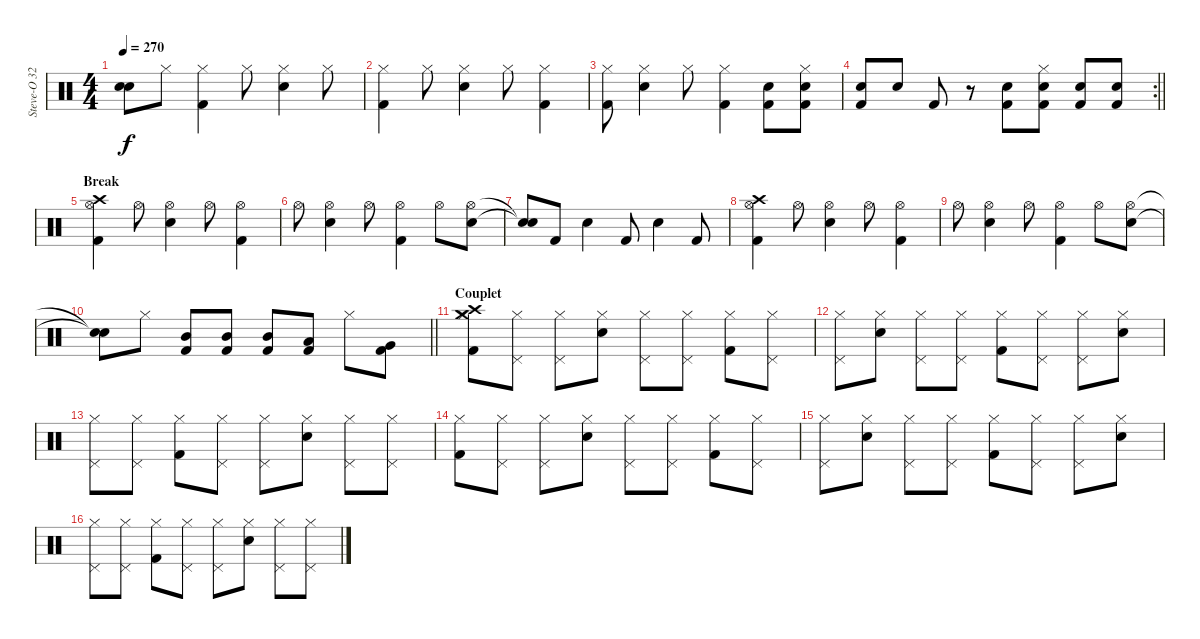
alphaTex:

\track ("Steve-O 32" "Steve-O 32") {instrument percussion}
\staff {score}
\articulation defaults
\ts (4 4)
\tempo 270
\clef neutral
\ks c
("Snare (hit)"{t} "Snare (hit)"{t}).8{dy f} "Hi-Hat (closed)".8 ("Kick (hit) 2" "Hi-Hat (closed)").4 "Hi-Hat (closed)".8 ("Electric Snare (hit)" "Hi-Hat (closed)").4 "Hi-Hat (closed)".8 |
("Hi-Hat (closed)" "Kick (hit) 2").4 "Hi-Hat (closed)".8 ("Electric Snare (hit)" "Hi-Hat (closed)").4 "Hi-Hat (closed)".8 ("Kick (hit) 2" "Hi-Hat (closed)").4 |
("Hi-Hat (closed)" "Kick (hit) 2").8 ("Electric Snare (hit)" "Hi-Hat (closed)").4 "Hi-Hat (closed)".8 ("Kick (hit) 2" "Hi-Hat (closed)").4 ("Electric Snare (hit)" "Kick (hit) 2").8 ("Electric Snare (hit)" "Hi-Hat (closed)" "Kick (hit) 2").8 |
\rc 2
\barLineRight lightlight
("Electric Snare (hit)" "Kick (hit) 2").8 "Electric Snare (hit)".8 "Kick (hit) 2".8 r.8 ("Electric Snare (hit)" "Kick (hit) 2").8 ("Electric Snare (hit)" "Hi-Hat (closed)" "Kick (hit) 2").8 ("Electric Snare (hit)" "Kick (hit) 2").8 ("Electric Snare (hit)" "Kick (hit) 2").8 |
\section ("" "Break")
("Crash high (hit)" "Hi-Hat (open)" "Kick (hit) 2").4 "Hi-Hat (open)".8 ("Electric Snare (hit)" "Hi-Hat (open)").4 "Hi-Hat (open)".8 ("Kick (hit) 2" "Hi-Hat (open)").4 |
"Hi-Hat (open)".8 ("Electric Snare (hit)" "Hi-Hat (open)").4 "Hi-Hat (open)".8 ("Kick (hit) 2" "Hi-Hat (open)").4 "Hi-Hat (open)".8 ("Electric Snare (hit)" "Hi-Hat (open)").8 |
("Snare (hit)"{t} "Snare (hit)"{t}).8 "Kick (hit) 2".8 "Electric Snare (hit)".4 "Kick (hit) 2".8 "Electric Snare (hit)".4 "Kick (hit) 2".8 |
("Crash high (hit)" "Hi-Hat (open)" "Kick (hit) 2").4 "Hi-Hat (open)".8 ("Electric Snare (hit)" "Hi-Hat (open)").4 "Hi-Hat (open)".8 ("Kick (hit) 2" "Hi-Hat (open)").4 |
"Hi-Hat (open)".8 ("Electric Snare (hit)" "Hi-Hat (open)").4 "Hi-Hat (open)".8 ("Kick (hit) 2" "Hi-Hat (open)").4 "Hi-Hat (open)".8 ("Electric Snare (hit)" "Hi-Hat (open)").8 |
\barLineRight lightlight
("Snare (hit)"{t} "Snare (hit)"{t}).8 "Hi-Hat (closed)".8 ("Mid Tom (hit)" "Kick (hit) 2").8 ("Mid Tom (hit)" "Kick (hit) 2").8 ("Mid Tom (hit)" "Kick (hit) 2").8 ("Low Tom (hit)" "Kick (hit) 2").8 "Hi-Hat (closed)".8 ("Very Low Tom (hit)" "Kick (hit) 2").8 |
\section ("" "Couplet")
("Crash medium (hit)" "Crash high (hit)" "Hi-Hat (closed)" "Kick (hit) 2").8 ("Pedal Hi-Hat (hit)" "Hi-Hat (closed)").8 ("Pedal Hi-Hat (hit)" "Hi-Hat (closed)").8 ("Electric Snare (hit)" "Hi-Hat (closed)").8 ("Pedal Hi-Hat (hit)" "Hi-Hat (closed)").8 ("Pedal Hi-Hat (hit)" "Hi-Hat (closed)").8 ("Hi-Hat (closed)" "Kick (hit) 2").8 ("Pedal Hi-Hat (hit)" "Hi-Hat (closed)").8 |
("Pedal Hi-Hat (hit)" "Hi-Hat (closed)").8 ("Electric Snare (hit)" "Hi-Hat (closed)").8 ("Pedal Hi-Hat (hit)" "Hi-Hat (closed)").8 ("Pedal Hi-Hat (hit)" "Hi-Hat (closed)").8 ("Kick (hit) 2" "Hi-Hat (closed)").8 ("Pedal Hi-Hat (hit)" "Hi-Hat (closed)").8 ("Pedal Hi-Hat (hit)" "Hi-Hat (closed)").8 ("Electric Snare (hit)" "Hi-Hat (closed)").8 |
("Pedal Hi-Hat (hit)" "Hi-Hat (closed)").8 ("Pedal Hi-Hat (hit)" "Hi-Hat (closed)").8 ("Kick (hit) 2" "Hi-Hat (closed)").8 ("Pedal Hi-Hat (hit)" "Hi-Hat (closed)").8 ("Pedal Hi-Hat (hit)" "Hi-Hat (closed)").8 ("Electric Snare (hit)" "Hi-Hat (closed)").8 ("Pedal Hi-Hat (hit)" "Hi-Hat (closed)").8 ("Pedal Hi-Hat (hit)" "Hi-Hat (closed)").8 |
("Hi-Hat (closed)" "Kick (hit) 2").8 ("Pedal Hi-Hat (hit)" "Hi-Hat (closed)").8 ("Pedal Hi-Hat (hit)" "Hi-Hat (closed)").8 ("Electric Snare (hit)" "Hi-Hat (closed)").8 ("Pedal Hi-Hat (hit)" "Hi-Hat (closed)").8 ("Pedal Hi-Hat (hit)" "Hi-Hat (closed)").8 ("Hi-Hat (closed)" "Kick (hit) 2").8 ("Pedal Hi-Hat (hit)" "Hi-Hat (closed)").8 |
("Pedal Hi-Hat (hit)" "Hi-Hat (closed)").8 ("Electric Snare (hit)" "Hi-Hat (closed)").8 ("Pedal Hi-Hat (hit)" "Hi-Hat (closed)").8 ("Pedal Hi-Hat (hit)" "Hi-Hat (closed)").8 ("Kick (hit) 2" "Hi-Hat (closed)").8 ("Pedal Hi-Hat (hit)" "Hi-Hat (closed)").8 ("Pedal Hi-Hat (hit)" "Hi-Hat (closed)").8 ("Electric Snare (hit)" "Hi-Hat (closed)").8 |
("Pedal Hi-Hat (hit)" "Hi-Hat (closed)").8 ("Pedal Hi-Hat (hit)" "Hi-Hat (closed)").8 ("Kick (hit) 2" "Hi-Hat (closed)").8 ("Pedal Hi-Hat (hit)" "Hi-Hat (closed)").8 ("Pedal Hi-Hat (hit)" "Hi-Hat (closed)").8 ("Electric Snare (hit)" "Hi-Hat (closed)").8 ("Pedal Hi-Hat (hit)" "Hi-Hat (closed)").8 ("Pedal Hi-Hat (hit)" "Hi-Hat (closed)").8
